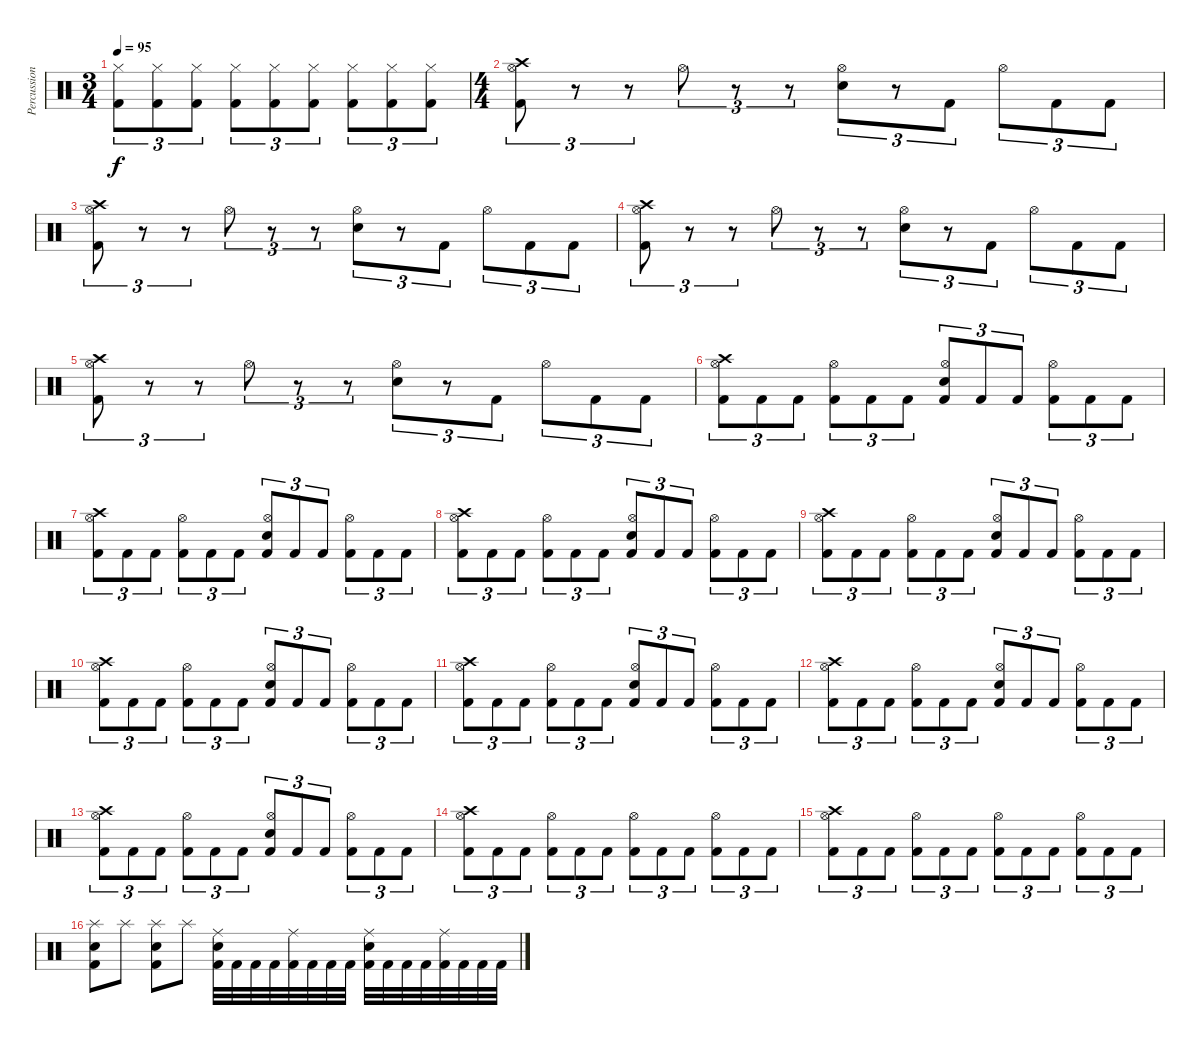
\track ("Percussions" "Percussion") {instrument percussion}
\staff {score}
\articulation defaults
\ts (3 4)
\tempo 95
\clef neutral
\ks c
("Hi-Hat (closed)" "Kick (hit) 2").8{tu (3 2) dy f} ("Hi-Hat (closed)" "Kick (hit) 2").8{tu (3 2)} ("Hi-Hat (closed)" "Kick (hit) 2").8{tu (3 2)} ("Hi-Hat (closed)" "Kick (hit) 2").8{tu (3 2)} ("Hi-Hat (closed)" "Kick (hit) 2").8{tu (3 2)} ("Hi-Hat (closed)" "Kick (hit) 2").8{tu (3 2)} ("Hi-Hat (closed)" "Kick (hit) 2").8{tu (3 2)} ("Hi-Hat (closed)" "Kick (hit) 2").8{tu (3 2)} ("Hi-Hat (closed)" "Kick (hit) 2").8{tu (3 2)} |
\ts (4 4)
("Crash high (hit)" "Hi-Hat (open)" "Kick (hit) 2").8{tu (3 2)} r.8{tu (3 2)} r.8{tu (3 2)} "Hi-Hat (open)".8{tu (3 2)} r.8{tu (3 2)} r.8{tu (3 2)} ("Hi-Hat (open)" "Electric Snare (hit)").8{tu (3 2)} r.8{tu (3 2)} "Kick (hit) 2".8{tu (3 2)} "Hi-Hat (open)".8{tu (3 2)} "Kick (hit) 2".8{tu (3 2)} "Kick (hit) 2".8{tu (3 2)} |
("Crash high (hit)" "Hi-Hat (open)" "Kick (hit) 2").8{tu (3 2)} r.8{tu (3 2)} r.8{tu (3 2)} "Hi-Hat (open)".8{tu (3 2)} r.8{tu (3 2)} r.8{tu (3 2)} ("Hi-Hat (open)" "Electric Snare (hit)").8{tu (3 2)} r.8{tu (3 2)} "Kick (hit) 2".8{tu (3 2)} "Hi-Hat (open)".8{tu (3 2)} "Kick (hit) 2".8{tu (3 2)} "Kick (hit) 2".8{tu (3 2)} |
("Crash high (hit)" "Hi-Hat (open)" "Kick (hit) 2").8{tu (3 2)} r.8{tu (3 2)} r.8{tu (3 2)} "Hi-Hat (open)".8{tu (3 2)} r.8{tu (3 2)} r.8{tu (3 2)} ("Hi-Hat (open)" "Electric Snare (hit)").8{tu (3 2)} r.8{tu (3 2)} "Kick (hit) 2".8{tu (3 2)} "Hi-Hat (open)".8{tu (3 2)} "Kick (hit) 2".8{tu (3 2)} "Kick (hit) 2".8{tu (3 2)} |
("Crash high (hit)" "Hi-Hat (open)" "Kick (hit) 2").8{tu (3 2)} r.8{tu (3 2)} r.8{tu (3 2)} "Hi-Hat (open)".8{tu (3 2)} r.8{tu (3 2)} r.8{tu (3 2)} ("Hi-Hat (open)" "Electric Snare (hit)").8{tu (3 2)} r.8{tu (3 2)} "Kick (hit) 2".8{tu (3 2)} "Hi-Hat (open)".8{tu (3 2)} "Kick (hit) 2".8{tu (3 2)} "Kick (hit) 2".8{tu (3 2)} |
("Crash high (hit)" "Hi-Hat (open)" "Kick (hit) 2").8{tu (3 2)} "Kick (hit) 2".8{tu (3 2)} "Kick (hit) 2".8{tu (3 2)} ("Hi-Hat (open)" "Kick (hit) 2").8{tu (3 2)} "Kick (hit) 2".8{tu (3 2)} "Kick (hit) 2".8{tu (3 2)} ("Hi-Hat (open)" "Electric Snare (hit)" "Kick (hit) 2").8{tu (3 2)} "Kick (hit) 2".8{tu (3 2)} "Kick (hit) 2".8{tu (3 2)} ("Hi-Hat (open)" "Kick (hit) 2").8{tu (3 2)} "Kick (hit) 2".8{tu (3 2)} "Kick (hit) 2".8{tu (3 2)} |
("Crash high (hit)" "Hi-Hat (open)" "Kick (hit) 2").8{tu (3 2)} "Kick (hit) 2".8{tu (3 2)} "Kick (hit) 2".8{tu (3 2)} ("Hi-Hat (open)" "Kick (hit) 2").8{tu (3 2)} "Kick (hit) 2".8{tu (3 2)} "Kick (hit) 2".8{tu (3 2)} ("Hi-Hat (open)" "Electric Snare (hit)" "Kick (hit) 2").8{tu (3 2)} "Kick (hit) 2".8{tu (3 2)} "Kick (hit) 2".8{tu (3 2)} ("Hi-Hat (open)" "Kick (hit) 2").8{tu (3 2)} "Kick (hit) 2".8{tu (3 2)} "Kick (hit) 2".8{tu (3 2)} |
("Crash high (hit)" "Hi-Hat (open)" "Kick (hit) 2").8{tu (3 2)} "Kick (hit) 2".8{tu (3 2)} "Kick (hit) 2".8{tu (3 2)} ("Hi-Hat (open)" "Kick (hit) 2").8{tu (3 2)} "Kick (hit) 2".8{tu (3 2)} "Kick (hit) 2".8{tu (3 2)} ("Hi-Hat (open)" "Electric Snare (hit)" "Kick (hit) 2").8{tu (3 2)} "Kick (hit) 2".8{tu (3 2)} "Kick (hit) 2".8{tu (3 2)} ("Hi-Hat (open)" "Kick (hit) 2").8{tu (3 2)} "Kick (hit) 2".8{tu (3 2)} "Kick (hit) 2".8{tu (3 2)} |
("Crash high (hit)" "Hi-Hat (open)" "Kick (hit) 2").8{tu (3 2)} "Kick (hit) 2".8{tu (3 2)} "Kick (hit) 2".8{tu (3 2)} ("Hi-Hat (open)" "Kick (hit) 2").8{tu (3 2)} "Kick (hit) 2".8{tu (3 2)} "Kick (hit) 2".8{tu (3 2)} ("Hi-Hat (open)" "Electric Snare (hit)" "Kick (hit) 2").8{tu (3 2)} "Kick (hit) 2".8{tu (3 2)} "Kick (hit) 2".8{tu (3 2)} ("Hi-Hat (open)" "Kick (hit) 2").8{tu (3 2)} "Kick (hit) 2".8{tu (3 2)} "Kick (hit) 2".8{tu (3 2)} |
("Crash high (hit)" "Hi-Hat (open)" "Kick (hit) 2").8{tu (3 2)} "Kick (hit) 2".8{tu (3 2)} "Kick (hit) 2".8{tu (3 2)} ("Hi-Hat (open)" "Kick (hit) 2").8{tu (3 2)} "Kick (hit) 2".8{tu (3 2)} "Kick (hit) 2".8{tu (3 2)} ("Hi-Hat (open)" "Electric Snare (hit)" "Kick (hit) 2").8{tu (3 2)} "Kick (hit) 2".8{tu (3 2)} "Kick (hit) 2".8{tu (3 2)} ("Hi-Hat (open)" "Kick (hit) 2").8{tu (3 2)} "Kick (hit) 2".8{tu (3 2)} "Kick (hit) 2".8{tu (3 2)} |
("Crash high (hit)" "Hi-Hat (open)" "Kick (hit) 2").8{tu (3 2)} "Kick (hit) 2".8{tu (3 2)} "Kick (hit) 2".8{tu (3 2)} ("Hi-Hat (open)" "Kick (hit) 2").8{tu (3 2)} "Kick (hit) 2".8{tu (3 2)} "Kick (hit) 2".8{tu (3 2)} ("Hi-Hat (open)" "Electric Snare (hit)" "Kick (hit) 2").8{tu (3 2)} "Kick (hit) 2".8{tu (3 2)} "Kick (hit) 2".8{tu (3 2)} ("Hi-Hat (open)" "Kick (hit) 2").8{tu (3 2)} "Kick (hit) 2".8{tu (3 2)} "Kick (hit) 2".8{tu (3 2)} |
("Crash high (hit)" "Hi-Hat (open)" "Kick (hit) 2").8{tu (3 2)} "Kick (hit) 2".8{tu (3 2)} "Kick (hit) 2".8{tu (3 2)} ("Hi-Hat (open)" "Kick (hit) 2").8{tu (3 2)} "Kick (hit) 2".8{tu (3 2)} "Kick (hit) 2".8{tu (3 2)} ("Hi-Hat (open)" "Electric Snare (hit)" "Kick (hit) 2").8{tu (3 2)} "Kick (hit) 2".8{tu (3 2)} "Kick (hit) 2".8{tu (3 2)} ("Hi-Hat (open)" "Kick (hit) 2").8{tu (3 2)} "Kick (hit) 2".8{tu (3 2)} "Kick (hit) 2".8{tu (3 2)} |
("Crash high (hit)" "Hi-Hat (open)" "Kick (hit) 2").8{tu (3 2)} "Kick (hit) 2".8{tu (3 2)} "Kick (hit) 2".8{tu (3 2)} ("Hi-Hat (open)" "Kick (hit) 2").8{tu (3 2)} "Kick (hit) 2".8{tu (3 2)} "Kick (hit) 2".8{tu (3 2)} ("Hi-Hat (open)" "Electric Snare (hit)" "Kick (hit) 2").8{tu (3 2)} "Kick (hit) 2".8{tu (3 2)} "Kick (hit) 2".8{tu (3 2)} ("Hi-Hat (open)" "Kick (hit) 2").8{tu (3 2)} "Kick (hit) 2".8{tu (3 2)} "Kick (hit) 2".8{tu (3 2)} |
("Crash high (hit)" "Hi-Hat (open)" "Kick (hit) 2").8{tu (3 2)} "Kick (hit) 2".8{tu (3 2)} "Kick (hit) 2".8{tu (3 2)} ("Hi-Hat (open)" "Kick (hit) 2").8{tu (3 2)} "Kick (hit) 2".8{tu (3 2)} "Kick (hit) 2".8{tu (3 2)} ("Hi-Hat (open)" "Kick (hit) 2").8{tu (3 2)} "Kick (hit) 2".8{tu (3 2)} "Kick (hit) 2".8{tu (3 2)} ("Hi-Hat (open)" "Kick (hit) 2").8{tu (3 2)} "Kick (hit) 2".8{tu (3 2)} "Kick (hit) 2".8{tu (3 2)} |
("Crash high (hit)" "Hi-Hat (open)" "Kick (hit) 2").8{tu (3 2)} "Kick (hit) 2".8{tu (3 2)} "Kick (hit) 2".8{tu (3 2)} ("Hi-Hat (open)" "Kick (hit) 2").8{tu (3 2)} "Kick (hit) 2".8{tu (3 2)} "Kick (hit) 2".8{tu (3 2)} ("Hi-Hat (open)" "Kick (hit) 2").8{tu (3 2)} "Kick (hit) 2".8{tu (3 2)} "Kick (hit) 2".8{tu (3 2)} ("Hi-Hat (open)" "Kick (hit) 2").8{tu (3 2)} "Kick (hit) 2".8{tu (3 2)} "Kick (hit) 2".8{tu (3 2)} |
("Splash (hit)" "Electric Snare (hit)" "Kick (hit) 2").8 "Splash (hit)".8 ("Splash (hit)" "Electric Snare (hit)" "Kick (hit) 2").8 "Splash (hit)".8 ("Ride (middle)" "Electric Snare (hit)" "Kick (hit) 2").32 "Kick (hit) 2".32 "Kick (hit) 2".32 "Kick (hit) 2".32 ("Ride (middle)" "Kick (hit) 2").32 "Kick (hit) 2".32 "Kick (hit) 2".32 "Kick (hit) 2".32 ("Ride (middle)" "Electric Snare (hit)" "Kick (hit) 2").32 "Kick (hit) 2".32 "Kick (hit) 2".32 "Kick (hit) 2".32 ("Ride (middle)" "Kick (hit) 2").32 "Kick (hit) 2".32 "Kick (hit) 2".32 "Kick (hit) 2".32
